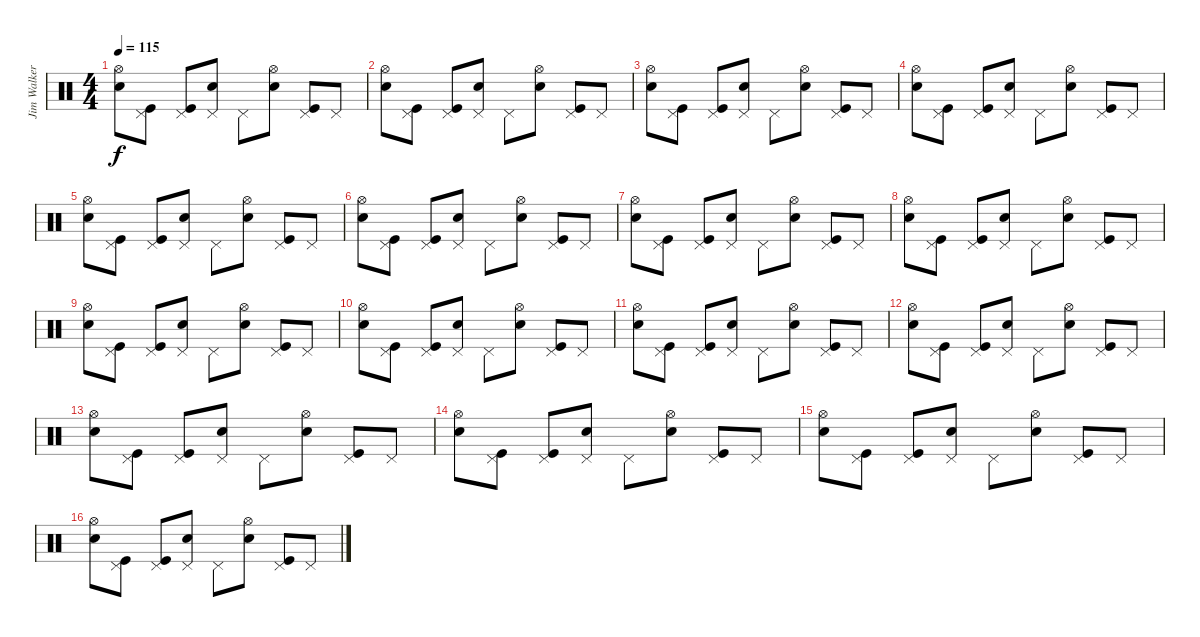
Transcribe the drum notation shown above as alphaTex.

\track ("Jim Walker-Drums" "Jim Walker") {instrument percussion}
\staff {score}
\articulation defaults
\ts (4 4)
\tempo 115
\clef neutral
\ks c
("Hi-Hat (open)" "Electric Snare (hit)").8{dy f} ("Pedal Hi-Hat (hit)" "Kick (hit)").8 ("Pedal Hi-Hat (hit)" "Kick (hit)").8 ("Pedal Hi-Hat (hit)" "Electric Snare (hit)").8 "Pedal Hi-Hat (hit)".8 ("Hi-Hat (open)" "Electric Snare (hit)").8 ("Pedal Hi-Hat (hit)" "Kick (hit)").8 "Pedal Hi-Hat (hit)".8 |
("Hi-Hat (open)" "Electric Snare (hit)").8 ("Pedal Hi-Hat (hit)" "Kick (hit)").8 ("Pedal Hi-Hat (hit)" "Kick (hit)").8 ("Pedal Hi-Hat (hit)" "Electric Snare (hit)").8 "Pedal Hi-Hat (hit)".8 ("Hi-Hat (open)" "Electric Snare (hit)").8 ("Pedal Hi-Hat (hit)" "Kick (hit)").8 "Pedal Hi-Hat (hit)".8 |
("Hi-Hat (open)" "Electric Snare (hit)").8 ("Pedal Hi-Hat (hit)" "Kick (hit)").8 ("Pedal Hi-Hat (hit)" "Kick (hit)").8 ("Pedal Hi-Hat (hit)" "Electric Snare (hit)").8 "Pedal Hi-Hat (hit)".8 ("Hi-Hat (open)" "Electric Snare (hit)").8 ("Pedal Hi-Hat (hit)" "Kick (hit)").8 "Pedal Hi-Hat (hit)".8 |
("Hi-Hat (open)" "Electric Snare (hit)").8 ("Pedal Hi-Hat (hit)" "Kick (hit)").8 ("Pedal Hi-Hat (hit)" "Kick (hit)").8 ("Pedal Hi-Hat (hit)" "Electric Snare (hit)").8 "Pedal Hi-Hat (hit)".8 ("Hi-Hat (open)" "Electric Snare (hit)").8 ("Pedal Hi-Hat (hit)" "Kick (hit)").8 "Pedal Hi-Hat (hit)".8 |
("Hi-Hat (open)" "Electric Snare (hit)").8 ("Pedal Hi-Hat (hit)" "Kick (hit)").8 ("Pedal Hi-Hat (hit)" "Kick (hit)").8 ("Pedal Hi-Hat (hit)" "Electric Snare (hit)").8 "Pedal Hi-Hat (hit)".8 ("Hi-Hat (open)" "Electric Snare (hit)").8 ("Pedal Hi-Hat (hit)" "Kick (hit)").8 "Pedal Hi-Hat (hit)".8 |
("Hi-Hat (open)" "Electric Snare (hit)").8 ("Pedal Hi-Hat (hit)" "Kick (hit)").8 ("Pedal Hi-Hat (hit)" "Kick (hit)").8 ("Pedal Hi-Hat (hit)" "Electric Snare (hit)").8 "Pedal Hi-Hat (hit)".8 ("Hi-Hat (open)" "Electric Snare (hit)").8 ("Pedal Hi-Hat (hit)" "Kick (hit)").8 "Pedal Hi-Hat (hit)".8 |
("Hi-Hat (open)" "Electric Snare (hit)").8 ("Pedal Hi-Hat (hit)" "Kick (hit)").8 ("Pedal Hi-Hat (hit)" "Kick (hit)").8 ("Pedal Hi-Hat (hit)" "Electric Snare (hit)").8 "Pedal Hi-Hat (hit)".8 ("Hi-Hat (open)" "Electric Snare (hit)").8 ("Pedal Hi-Hat (hit)" "Kick (hit)").8 "Pedal Hi-Hat (hit)".8 |
("Hi-Hat (open)" "Electric Snare (hit)").8 ("Pedal Hi-Hat (hit)" "Kick (hit)").8 ("Pedal Hi-Hat (hit)" "Kick (hit)").8 ("Pedal Hi-Hat (hit)" "Electric Snare (hit)").8 "Pedal Hi-Hat (hit)".8 ("Hi-Hat (open)" "Electric Snare (hit)").8 ("Pedal Hi-Hat (hit)" "Kick (hit)").8 "Pedal Hi-Hat (hit)".8 |
("Hi-Hat (open)" "Electric Snare (hit)").8 ("Pedal Hi-Hat (hit)" "Kick (hit)").8 ("Pedal Hi-Hat (hit)" "Kick (hit)").8 ("Pedal Hi-Hat (hit)" "Electric Snare (hit)").8 "Pedal Hi-Hat (hit)".8 ("Hi-Hat (open)" "Electric Snare (hit)").8 ("Pedal Hi-Hat (hit)" "Kick (hit)").8 "Pedal Hi-Hat (hit)".8 |
("Hi-Hat (open)" "Electric Snare (hit)").8 ("Pedal Hi-Hat (hit)" "Kick (hit)").8 ("Pedal Hi-Hat (hit)" "Kick (hit)").8 ("Pedal Hi-Hat (hit)" "Electric Snare (hit)").8 "Pedal Hi-Hat (hit)".8 ("Hi-Hat (open)" "Electric Snare (hit)").8 ("Pedal Hi-Hat (hit)" "Kick (hit)").8 "Pedal Hi-Hat (hit)".8 |
("Hi-Hat (open)" "Electric Snare (hit)").8 ("Pedal Hi-Hat (hit)" "Kick (hit)").8 ("Pedal Hi-Hat (hit)" "Kick (hit)").8 ("Pedal Hi-Hat (hit)" "Electric Snare (hit)").8 "Pedal Hi-Hat (hit)".8 ("Hi-Hat (open)" "Electric Snare (hit)").8 ("Pedal Hi-Hat (hit)" "Kick (hit)").8 "Pedal Hi-Hat (hit)".8 |
("Hi-Hat (open)" "Electric Snare (hit)").8 ("Pedal Hi-Hat (hit)" "Kick (hit)").8 ("Pedal Hi-Hat (hit)" "Kick (hit)").8 ("Pedal Hi-Hat (hit)" "Electric Snare (hit)").8 "Pedal Hi-Hat (hit)".8 ("Hi-Hat (open)" "Electric Snare (hit)").8 ("Pedal Hi-Hat (hit)" "Kick (hit)").8 "Pedal Hi-Hat (hit)".8 |
("Hi-Hat (open)" "Electric Snare (hit)").8 ("Pedal Hi-Hat (hit)" "Kick (hit)").8 ("Pedal Hi-Hat (hit)" "Kick (hit)").8 ("Pedal Hi-Hat (hit)" "Electric Snare (hit)").8 "Pedal Hi-Hat (hit)".8 ("Hi-Hat (open)" "Electric Snare (hit)").8 ("Pedal Hi-Hat (hit)" "Kick (hit)").8 "Pedal Hi-Hat (hit)".8 |
("Hi-Hat (open)" "Electric Snare (hit)").8 ("Pedal Hi-Hat (hit)" "Kick (hit)").8 ("Pedal Hi-Hat (hit)" "Kick (hit)").8 ("Pedal Hi-Hat (hit)" "Electric Snare (hit)").8 "Pedal Hi-Hat (hit)".8 ("Hi-Hat (open)" "Electric Snare (hit)").8 ("Pedal Hi-Hat (hit)" "Kick (hit)").8 "Pedal Hi-Hat (hit)".8 |
("Hi-Hat (open)" "Electric Snare (hit)").8 ("Pedal Hi-Hat (hit)" "Kick (hit)").8 ("Pedal Hi-Hat (hit)" "Kick (hit)").8 ("Pedal Hi-Hat (hit)" "Electric Snare (hit)").8 "Pedal Hi-Hat (hit)".8 ("Hi-Hat (open)" "Electric Snare (hit)").8 ("Pedal Hi-Hat (hit)" "Kick (hit)").8 "Pedal Hi-Hat (hit)".8 |
("Hi-Hat (open)" "Electric Snare (hit)").8 ("Pedal Hi-Hat (hit)" "Kick (hit)").8 ("Pedal Hi-Hat (hit)" "Kick (hit)").8 ("Pedal Hi-Hat (hit)" "Electric Snare (hit)").8 "Pedal Hi-Hat (hit)".8 ("Hi-Hat (open)" "Electric Snare (hit)").8 ("Pedal Hi-Hat (hit)" "Kick (hit)").8 "Pedal Hi-Hat (hit)".8
